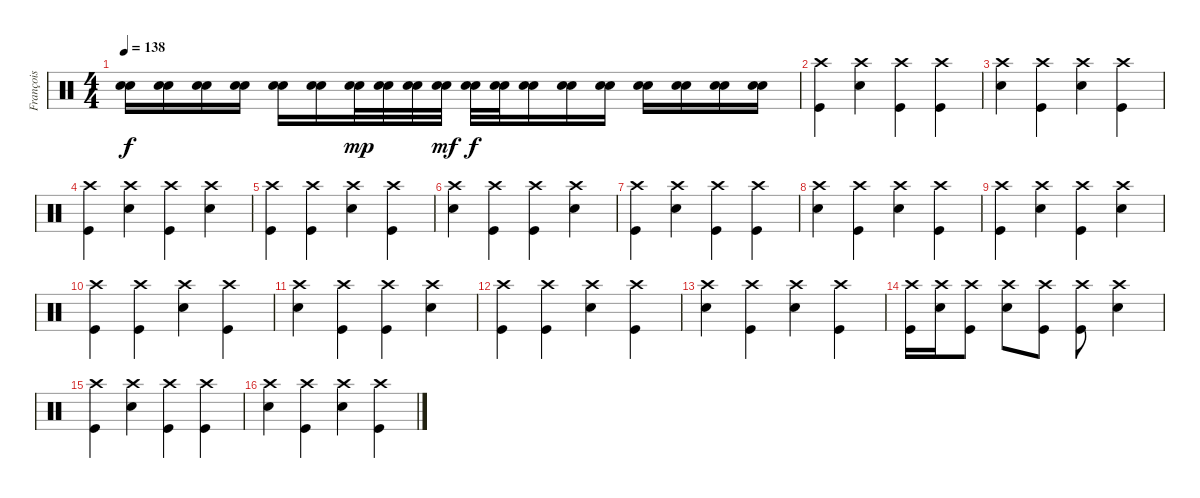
\track ("François" "François") {instrument percussion}
\staff {score}
\articulation defaults
\ts (4 4)
\tempo 138
\clef neutral
\ks c
("Electric Snare (hit)" "Electric Snare (hit)").16{dy f} ("Electric Snare (hit)" "Electric Snare (hit)").16 ("Electric Snare (hit)" "Electric Snare (hit)").16 ("Electric Snare (hit)" "Electric Snare (hit)").16 ("Electric Snare (hit)" "Electric Snare (hit)").16 ("Electric Snare (hit)" "Electric Snare (hit)").16 ("Electric Snare (hit)" "Electric Snare (hit)").32{dy mp} ("Electric Snare (hit)" "Electric Snare (hit)").32 ("Electric Snare (hit)" "Electric Snare (hit)").32 ("Electric Snare (hit)" "Electric Snare (hit)").32{dy mf} ("Electric Snare (hit)" "Electric Snare (hit)").32{dy f} ("Electric Snare (hit)" "Electric Snare (hit)").32 ("Electric Snare (hit)" "Electric Snare (hit)").16 ("Electric Snare (hit)" "Electric Snare (hit)").16 ("Electric Snare (hit)" "Electric Snare (hit)").16 ("Electric Snare (hit)" "Electric Snare (hit)").16 ("Electric Snare (hit)" "Electric Snare (hit)").16 ("Electric Snare (hit)" "Electric Snare (hit)").16 ("Electric Snare (hit)" "Electric Snare (hit)").16 |
("Crash high (hit)" "Kick (hit)").4 ("Crash high (hit)" "Electric Snare (hit)").4 ("Crash high (hit)" "Kick (hit)").4 ("Crash high (hit)" "Kick (hit)").4 |
("Crash high (hit)" "Electric Snare (hit)").4 ("Crash high (hit)" "Kick (hit)").4 ("Crash high (hit)" "Electric Snare (hit)").4 ("Crash high (hit)" "Kick (hit)").4 |
("Crash high (hit)" "Kick (hit)").4 ("Crash high (hit)" "Electric Snare (hit)").4 ("Crash high (hit)" "Kick (hit)").4 ("Crash high (hit)" "Electric Snare (hit)").4 |
("Crash high (hit)" "Kick (hit)").4 ("Crash high (hit)" "Kick (hit)").4 ("Crash high (hit)" "Electric Snare (hit)").4 ("Crash high (hit)" "Kick (hit)").4 |
("Crash high (hit)" "Electric Snare (hit)").4 ("Crash high (hit)" "Kick (hit)").4 ("Crash high (hit)" "Kick (hit)").4 ("Crash high (hit)" "Electric Snare (hit)").4 |
("Crash high (hit)" "Kick (hit)").4 ("Crash high (hit)" "Electric Snare (hit)").4 ("Crash high (hit)" "Kick (hit)").4 ("Crash high (hit)" "Kick (hit)").4 |
("Crash high (hit)" "Electric Snare (hit)").4 ("Crash high (hit)" "Kick (hit)").4 ("Crash high (hit)" "Electric Snare (hit)").4 ("Crash high (hit)" "Kick (hit)").4 |
("Crash high (hit)" "Kick (hit)").4 ("Crash high (hit)" "Electric Snare (hit)").4 ("Crash high (hit)" "Kick (hit)").4 ("Crash high (hit)" "Electric Snare (hit)").4 |
("Crash high (hit)" "Kick (hit)").4 ("Crash high (hit)" "Kick (hit)").4 ("Crash high (hit)" "Electric Snare (hit)").4 ("Crash high (hit)" "Kick (hit)").4 |
("Crash high (hit)" "Electric Snare (hit)").4 ("Crash high (hit)" "Kick (hit)").4 ("Crash high (hit)" "Kick (hit)").4 ("Crash high (hit)" "Electric Snare (hit)").4 |
("Crash high (hit)" "Kick (hit)").4 ("Crash high (hit)" "Kick (hit)").4 ("Crash high (hit)" "Electric Snare (hit)").4 ("Crash high (hit)" "Kick (hit)").4 |
("Crash high (hit)" "Electric Snare (hit)").4 ("Crash high (hit)" "Kick (hit)").4 ("Crash high (hit)" "Electric Snare (hit)").4 ("Crash high (hit)" "Kick (hit)").4 |
("Crash high (hit)" "Kick (hit)").16 ("Crash high (hit)" "Electric Snare (hit)").16 ("Crash high (hit)" "Kick (hit)").8 ("Crash high (hit)" "Electric Snare (hit)").8 ("Crash high (hit)" "Kick (hit)").8 ("Crash high (hit)" "Kick (hit)").8 ("Crash high (hit)" "Electric Snare (hit)").4 |
("Crash high (hit)" "Kick (hit)").4 ("Crash high (hit)" "Electric Snare (hit)").4 ("Crash high (hit)" "Kick (hit)").4 ("Crash high (hit)" "Kick (hit)").4 |
("Crash high (hit)" "Electric Snare (hit)").4 ("Crash high (hit)" "Kick (hit)").4 ("Crash high (hit)" "Electric Snare (hit)").4 ("Crash high (hit)" "Kick (hit)").4
